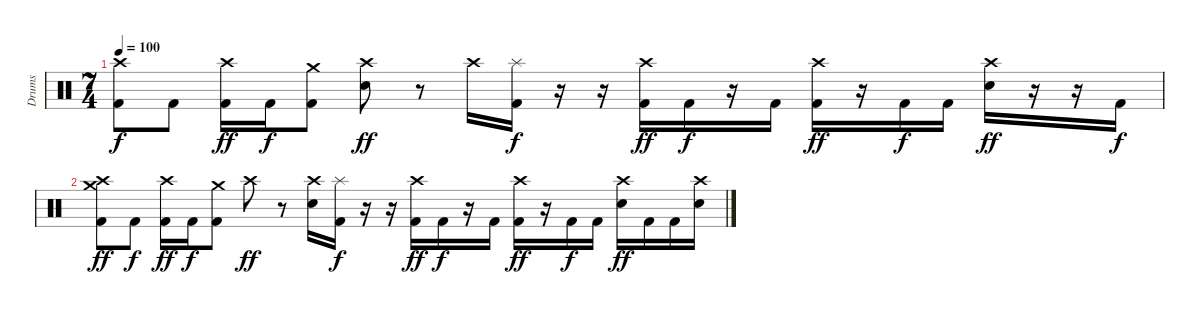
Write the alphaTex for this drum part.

\track ("Drums" "Drums") {instrument percussion}
\staff {score}
\articulation defaults
\ts (7 4)
\tempo 100
\clef neutral
\ks c
("Crash high (hit)" "Kick (hit) 2").8{dy f} "Kick (hit) 2".8 ("Crash high (hit)" "Kick (hit) 2").16{dy ff} "Kick (hit) 2".16{dy f} ("Crash medium (hit)" "Kick (hit) 2").8 ("Crash high (hit)" "Electric Snare (hit)").8{dy ff} r.8 "Crash high (hit)".16 ("Splash (hit)" "Kick (hit) 2").16{dy f} r.16 r.16 ("Crash high (hit)" "Kick (hit) 2").16{dy ff} "Kick (hit) 2".16{dy f} r.16 "Kick (hit) 2".16 ("Crash high (hit)" "Kick (hit) 2").16{dy ff} r.16 "Kick (hit) 2".16{dy f} "Kick (hit) 2".16 ("Crash high (hit)" "Electric Snare (hit)").16{dy ff} r.16 r.16 "Kick (hit) 2".16{dy f} |
("Crash high (hit)" "Crash medium (hit)" "Kick (hit) 2").8{dy ff} "Kick (hit) 2".8{dy f} ("Crash high (hit)" "Kick (hit) 2").16{dy ff} "Kick (hit) 2".16{dy f} ("Crash medium (hit)" "Kick (hit) 2").8 "Crash high (hit)".8{dy ff} r.8 ("Crash high (hit)" "Electric Snare (hit)").16 ("Splash (hit)" "Kick (hit) 2").16{dy f} r.16 r.16 ("Crash high (hit)" "Kick (hit) 2").16{dy ff} "Kick (hit) 2".16{dy f} r.16 "Kick (hit) 2".16 ("Crash high (hit)" "Kick (hit) 2").16{dy ff} r.16 "Kick (hit) 2".16{dy f} "Kick (hit) 2".16 ("Crash high (hit)" "Electric Snare (hit)").16{dy ff} "Kick (hit) 2".16 "Kick (hit) 2".16 ("Crash high (hit)" "Electric Snare (hit)").16
